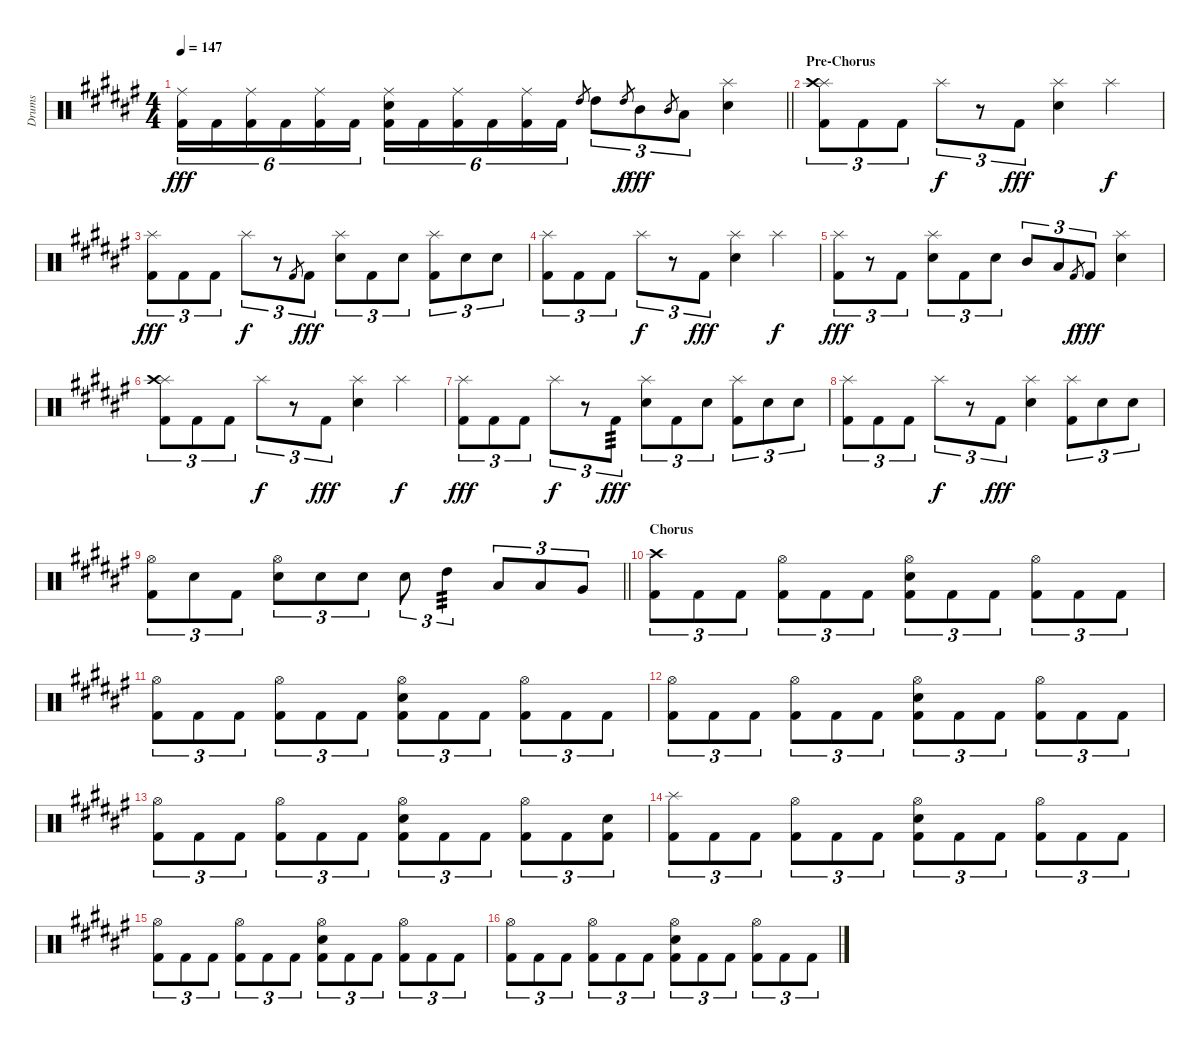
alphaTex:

\track ("Drums" "Drums") {instrument percussion}
\staff {score}
\articulation defaults
\ts (4 4)
\tempo 147
\clef neutral
\barLineRight lightlight
\ks d#minor
("Ride (middle)" "Kick (hit) 2").16{tu (6 4) dy fff} "Kick (hit) 2".16{tu (6 4)} ("Ride (middle)" "Kick (hit) 2").16{tu (6 4)} "Kick (hit) 2".16{tu (6 4)} ("Ride (middle)" "Kick (hit) 2").16{tu (6 4)} "Kick (hit) 2".16{tu (6 4)} ("Ride (middle)" "Snare (hit) 2" "Kick (hit) 2").16{tu (6 4)} "Kick (hit) 2".16{tu (6 4)} ("Ride (middle)" "Kick (hit) 2").16{tu (6 4)} "Kick (hit) 2".16{tu (6 4)} ("Ride (middle)" "Kick (hit) 2").16{tu (6 4)} "Kick (hit) 2".16{tu (6 4)} "High Tom (hit)".8{gr} "High Tom (hit)".8{tu (3 2)} "High Tom (hit)".8{gr dy f} "Mid Tom (hit)".8{tu (3 2) dy fff} "Mid Tom (hit)".8{gr} "Low Tom (hit)".8{tu (3 2)} ("Splash (hit)" "Snare (hit) 2").4 |
\section ("" "Pre-Chorus")
("Splash (hit)" "Crash high (hit)" "Kick (hit) 2").8{tu (3 2)} "Kick (hit) 2".8{tu (3 2)} "Kick (hit) 2".8{tu (3 2)} "Splash (hit)".8{tu (3 2) dy f} r.8{tu (3 2)} "Kick (hit) 2".8{tu (3 2) dy fff} ("Splash (hit)" "Snare (hit) 2").4 "Splash (hit)".4{dy f} |
("Splash (hit)" "Kick (hit) 2").8{tu (3 2) dy fff} "Kick (hit) 2".8{tu (3 2)} "Kick (hit) 2".8{tu (3 2)} "Splash (hit)".8{tu (3 2) dy f} r.8{tu (3 2)} "Kick (hit) 2".8{gr} "Kick (hit) 2".8{tu (3 2) dy fff} ("Splash (hit)" "Snare (hit) 2").8{tu (3 2)} "Kick (hit) 2".8{tu (3 2)} "Snare (hit) 2".8{tu (3 2)} ("Splash (hit)" "Kick (hit) 2").8{tu (3 2)} "Snare (hit) 2".8{tu (3 2)} "Snare (hit) 2".8{tu (3 2)} |
("Splash (hit)" "Kick (hit) 2").8{tu (3 2)} "Kick (hit) 2".8{tu (3 2)} "Kick (hit) 2".8{tu (3 2)} "Splash (hit)".8{tu (3 2) dy f} r.8{tu (3 2)} "Kick (hit) 2".8{tu (3 2) dy fff} ("Splash (hit)" "Snare (hit) 2").4 "Splash (hit)".4{dy f} |
("Splash (hit)" "Kick (hit) 2").8{tu (3 2) dy fff} r.8{tu (3 2)} "Kick (hit) 2".8{tu (3 2)} ("Splash (hit)" "Snare (hit) 2").8{tu (3 2)} "Kick (hit) 2".8{tu (3 2)} "Snare (hit) 2".8{tu (3 2)} "Mid Tom (hit)".8{tu (3 2)} "Low Tom (hit)".8{tu (3 2)} "Kick (hit) 2".8{gr dy f} "Kick (hit) 2".8{tu (3 2) dy fff} ("Splash (hit)" "Snare (hit) 2").4 |
("Splash (hit)" "Crash high (hit)" "Kick (hit) 2").8{tu (3 2)} "Kick (hit) 2".8{tu (3 2)} "Kick (hit) 2".8{tu (3 2)} "Splash (hit)".8{tu (3 2) dy f} r.8{tu (3 2)} "Kick (hit) 2".8{tu (3 2) dy fff} ("Splash (hit)" "Snare (hit) 2").4 "Splash (hit)".4{dy f} |
("Splash (hit)" "Kick (hit) 2").8{tu (3 2) dy fff} "Kick (hit) 2".8{tu (3 2)} "Kick (hit) 2".8{tu (3 2)} "Splash (hit)".8{tu (3 2) dy f} r.8{tu (3 2)} "Kick (hit) 2".8{tu (3 2) tp 3 dy fff} ("Splash (hit)" "Snare (hit) 2").8{tu (3 2)} "Kick (hit) 2".8{tu (3 2)} "Snare (hit) 2".8{tu (3 2)} ("Splash (hit)" "Kick (hit) 2").8{tu (3 2)} "Snare (hit) 2".8{tu (3 2)} "Snare (hit) 2".8{tu (3 2)} |
("Splash (hit)" "Kick (hit) 2").8{tu (3 2)} "Kick (hit) 2".8{tu (3 2)} "Kick (hit) 2".8{tu (3 2)} "Splash (hit)".8{tu (3 2) dy f} r.8{tu (3 2)} "Kick (hit) 2".8{tu (3 2) dy fff} ("Splash (hit)" "Snare (hit) 2").4 ("Splash (hit)" "Kick (hit) 2").8{tu (3 2)} "Snare (hit) 2".8{tu (3 2)} "Snare (hit) 2".8{tu (3 2)} |
\barLineRight lightlight
("Hi-Hat (open)" "Kick (hit) 2").8{tu (3 2)} "Snare (hit) 2".8{tu (3 2)} "Kick (hit) 2".8{tu (3 2)} ("Hi-Hat (open)" "Snare (hit) 2").8{tu (3 2)} "Snare (hit) 2".8{tu (3 2)} "Snare (hit) 2".8{tu (3 2)} "Snare (hit) 2".8{tu (3 2)} "High Tom (hit)".4{tu (3 2) tp 3} "Low Tom (hit)".8{tu (3 2)} "Low Tom (hit)".8{tu (3 2)} "Very Low Tom (hit)".8{tu (3 2)} |
\section ("" "Chorus")
("Crash high (hit)" "Kick (hit) 2").8{tu (3 2)} "Kick (hit) 2".8{tu (3 2)} "Kick (hit) 2".8{tu (3 2)} ("Hi-Hat (open)" "Kick (hit) 2").8{tu (3 2)} "Kick (hit) 2".8{tu (3 2)} "Kick (hit) 2".8{tu (3 2)} ("Hi-Hat (open)" "Snare (hit) 2" "Kick (hit) 2").8{tu (3 2)} "Kick (hit) 2".8{tu (3 2)} "Kick (hit) 2".8{tu (3 2)} ("Hi-Hat (open)" "Kick (hit) 2").8{tu (3 2)} "Kick (hit) 2".8{tu (3 2)} "Kick (hit) 2".8{tu (3 2)} |
("Hi-Hat (open)" "Kick (hit) 2").8{tu (3 2)} "Kick (hit) 2".8{tu (3 2)} "Kick (hit) 2".8{tu (3 2)} ("Hi-Hat (open)" "Kick (hit) 2").8{tu (3 2)} "Kick (hit) 2".8{tu (3 2)} "Kick (hit) 2".8{tu (3 2)} ("Hi-Hat (open)" "Snare (hit) 2" "Kick (hit) 2").8{tu (3 2)} "Kick (hit) 2".8{tu (3 2)} "Kick (hit) 2".8{tu (3 2)} ("Hi-Hat (open)" "Kick (hit) 2").8{tu (3 2)} "Kick (hit) 2".8{tu (3 2)} "Kick (hit) 2".8{tu (3 2)} |
("Hi-Hat (open)" "Kick (hit) 2").8{tu (3 2)} "Kick (hit) 2".8{tu (3 2)} "Kick (hit) 2".8{tu (3 2)} ("Hi-Hat (open)" "Kick (hit) 2").8{tu (3 2)} "Kick (hit) 2".8{tu (3 2)} "Kick (hit) 2".8{tu (3 2)} ("Hi-Hat (open)" "Snare (hit) 2" "Kick (hit) 2").8{tu (3 2)} "Kick (hit) 2".8{tu (3 2)} "Kick (hit) 2".8{tu (3 2)} ("Hi-Hat (open)" "Kick (hit) 2").8{tu (3 2)} "Kick (hit) 2".8{tu (3 2)} "Kick (hit) 2".8{tu (3 2)} |
("Hi-Hat (open)" "Kick (hit) 2").8{tu (3 2)} "Kick (hit) 2".8{tu (3 2)} "Kick (hit) 2".8{tu (3 2)} ("Hi-Hat (open)" "Kick (hit) 2").8{tu (3 2)} "Kick (hit) 2".8{tu (3 2)} "Kick (hit) 2".8{tu (3 2)} ("Hi-Hat (open)" "Snare (hit) 2" "Kick (hit) 2").8{tu (3 2)} "Kick (hit) 2".8{tu (3 2)} "Kick (hit) 2".8{tu (3 2)} ("Hi-Hat (open)" "Kick (hit) 2").8{tu (3 2)} "Kick (hit) 2".8{tu (3 2)} ("Snare (hit) 2" "Kick (hit) 2").8{tu (3 2)} |
("Splash (hit)" "Kick (hit) 2").8{tu (3 2)} "Kick (hit) 2".8{tu (3 2)} "Kick (hit) 2".8{tu (3 2)} ("Hi-Hat (open)" "Kick (hit) 2").8{tu (3 2)} "Kick (hit) 2".8{tu (3 2)} "Kick (hit) 2".8{tu (3 2)} ("Hi-Hat (open)" "Snare (hit) 2" "Kick (hit) 2").8{tu (3 2)} "Kick (hit) 2".8{tu (3 2)} "Kick (hit) 2".8{tu (3 2)} ("Hi-Hat (open)" "Kick (hit) 2").8{tu (3 2)} "Kick (hit) 2".8{tu (3 2)} "Kick (hit) 2".8{tu (3 2)} |
("Hi-Hat (open)" "Kick (hit) 2").8{tu (3 2)} "Kick (hit) 2".8{tu (3 2)} "Kick (hit) 2".8{tu (3 2)} ("Hi-Hat (open)" "Kick (hit) 2").8{tu (3 2)} "Kick (hit) 2".8{tu (3 2)} "Kick (hit) 2".8{tu (3 2)} ("Hi-Hat (open)" "Snare (hit) 2" "Kick (hit) 2").8{tu (3 2)} "Kick (hit) 2".8{tu (3 2)} "Kick (hit) 2".8{tu (3 2)} ("Hi-Hat (open)" "Kick (hit) 2").8{tu (3 2)} "Kick (hit) 2".8{tu (3 2)} "Kick (hit) 2".8{tu (3 2)} |
("Hi-Hat (open)" "Kick (hit) 2").8{tu (3 2)} "Kick (hit) 2".8{tu (3 2)} "Kick (hit) 2".8{tu (3 2)} ("Hi-Hat (open)" "Kick (hit) 2").8{tu (3 2)} "Kick (hit) 2".8{tu (3 2)} "Kick (hit) 2".8{tu (3 2)} ("Hi-Hat (open)" "Snare (hit) 2" "Kick (hit) 2").8{tu (3 2)} "Kick (hit) 2".8{tu (3 2)} "Kick (hit) 2".8{tu (3 2)} ("Hi-Hat (open)" "Kick (hit) 2").8{tu (3 2)} "Kick (hit) 2".8{tu (3 2)} "Kick (hit) 2".8{tu (3 2)}
